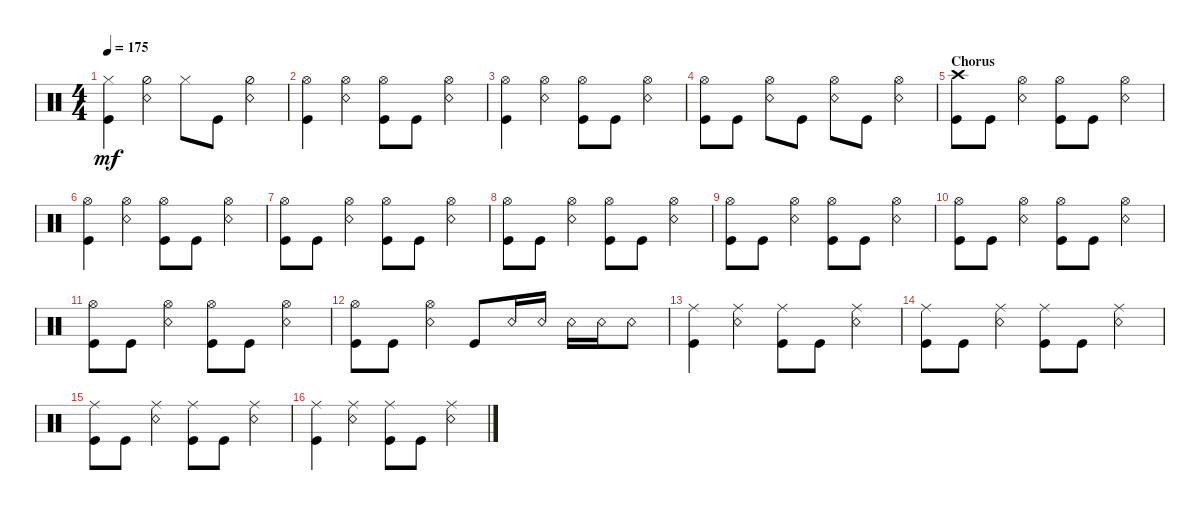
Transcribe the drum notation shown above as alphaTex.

\defaultSystemsLayout 4
\bracketExtendMode groupsimilarinstruments
\singleTrackTrackNamePolicy hidden
\multiTrackTrackNamePolicy hidden
\firstSystemTrackNameOrientation horizontal
\otherSystemsTrackNameOrientation horizontal
\track ("Drumkit" "Drums") {solo instrument percussion}
\staff {score}
\articulation defaults
\ts (4 4)
\tempo 175
\clef neutral
\ks c
("Kick (hit)" "Hi-Hat (closed)").4{dy mf} ("Snare (rim shot)" "Hi-Hat (half)").4 "Hi-Hat (closed)".8 "Kick (hit)".8 ("Snare (rim shot)" "Hi-Hat (half)").4 |
("Kick (hit)" "Hi-Hat (open)").4 ("Snare (rim shot)" "Hi-Hat (open)").4 ("Kick (hit)" "Hi-Hat (open)").8 "Kick (hit)".8 ("Snare (rim shot)" "Hi-Hat (open)").4 |
("Kick (hit)" "Hi-Hat (open)").4 ("Snare (rim shot)" "Hi-Hat (open)").4 ("Kick (hit)" "Hi-Hat (open)").8 "Kick (hit)".8 ("Snare (rim shot)" "Hi-Hat (open)").4 |
("Kick (hit)" "Hi-Hat (open)").8 "Kick (hit)".8 ("Snare (rim shot)" "Hi-Hat (open)").8 "Kick (hit)".8 ("Snare (rim shot)" "Hi-Hat (open)").8 "Kick (hit)".8 ("Snare (rim shot)" "Hi-Hat (open)").4 |
\section ("" "Chorus")
("Kick (hit)" "Crash high (hit)").8 "Kick (hit)".8 ("Snare (rim shot)" "Hi-Hat (open)").4 ("Kick (hit)" "Hi-Hat (open)").8 "Kick (hit)".8 ("Snare (rim shot)" "Hi-Hat (open)").4 |
("Kick (hit)" "Hi-Hat (open)").4 ("Snare (rim shot)" "Hi-Hat (open)").4 ("Kick (hit)" "Hi-Hat (open)").8 "Kick (hit)".8 ("Snare (rim shot)" "Hi-Hat (open)").4 |
("Kick (hit)" "Hi-Hat (open)").8 "Kick (hit)".8 ("Snare (rim shot)" "Hi-Hat (open)").4 ("Kick (hit)" "Hi-Hat (open)").8 "Kick (hit)".8 ("Snare (rim shot)" "Hi-Hat (open)").4 |
("Kick (hit)" "Hi-Hat (open)").8 "Kick (hit)".8 ("Snare (rim shot)" "Hi-Hat (open)").4 ("Kick (hit)" "Hi-Hat (open)").8 "Kick (hit)".8 ("Snare (rim shot)" "Hi-Hat (open)").4 |
("Kick (hit)" "Hi-Hat (open)").8 "Kick (hit)".8 ("Snare (rim shot)" "Hi-Hat (open)").4 ("Kick (hit)" "Hi-Hat (open)").8 "Kick (hit)".8 ("Snare (rim shot)" "Hi-Hat (open)").4 |
("Kick (hit)" "Hi-Hat (open)").8 "Kick (hit)".8 ("Snare (rim shot)" "Hi-Hat (open)").4 ("Kick (hit)" "Hi-Hat (open)").8 "Kick (hit)".8 ("Snare (rim shot)" "Hi-Hat (open)").4 |
("Kick (hit)" "Hi-Hat (open)").8 "Kick (hit)".8 ("Snare (rim shot)" "Hi-Hat (open)").4 ("Kick (hit)" "Hi-Hat (open)").8 "Kick (hit)".8 ("Snare (rim shot)" "Hi-Hat (open)").4 |
("Kick (hit)" "Hi-Hat (open)").8 "Kick (hit)".8 ("Snare (rim shot)" "Hi-Hat (open)").4 "Kick (hit)".8 "Snare (rim shot)".16 "Snare (rim shot)".16 "Snare (rim shot)".16 "Snare (rim shot)".16 "Snare (rim shot)".8 |
("Kick (hit)" "Ride (middle)").4 ("Snare (rim shot)" "Ride (middle)").4 ("Kick (hit)" "Ride (middle)").8 "Kick (hit)".8 ("Snare (rim shot)" "Ride (middle)").4 |
("Kick (hit)" "Ride (middle)").8 "Kick (hit)".8 ("Snare (rim shot)" "Ride (middle)").4 ("Kick (hit)" "Ride (middle)").8 "Kick (hit)".8 ("Snare (rim shot)" "Ride (middle)").4 |
("Kick (hit)" "Ride (middle)").8 "Kick (hit)".8 ("Snare (rim shot)" "Ride (middle)").4 ("Kick (hit)" "Ride (middle)").8 "Kick (hit)".8 ("Snare (rim shot)" "Ride (middle)").4 |
("Kick (hit)" "Ride (middle)").4 ("Snare (rim shot)" "Ride (middle)").4 ("Kick (hit)" "Ride (middle)").8 "Kick (hit)".8 ("Snare (rim shot)" "Ride (middle)").4
